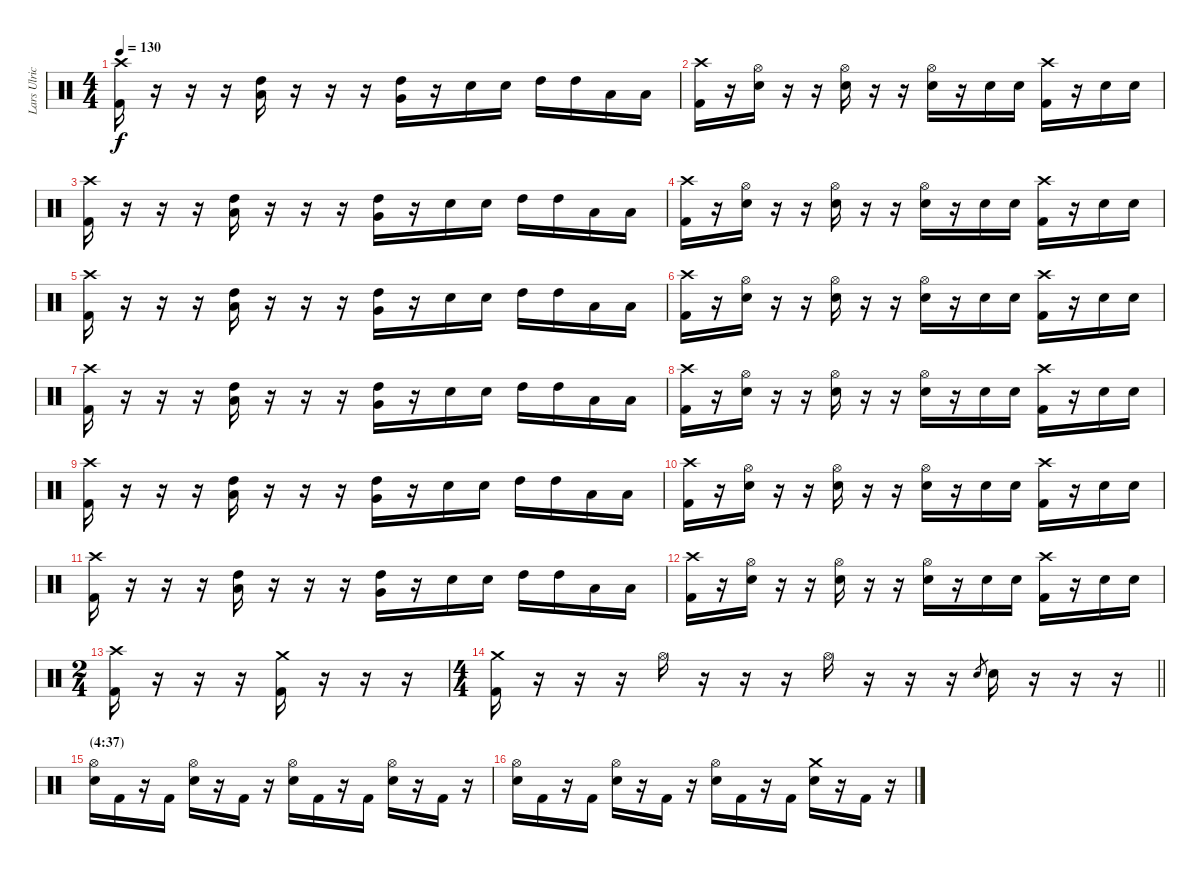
\track ("Lars Ulrich" "Lars Ulric") {instrument percussion}
\staff {score}
\articulation defaults
\ts (4 4)
\tempo 130
\clef neutral
\ks c
("Crash high (hit)" "Kick (hit) 2").16{dy f} r.16 r.16 r.16 ("Low Tom (hit)" "High Tom (hit)").16 r.16 r.16 r.16 ("Very Low Tom (hit)" "High Tom (hit)").16 r.16 "Electric Snare (hit)".16 "Electric Snare (hit)".16 "High Tom (hit)".16 "High Tom (hit)".16 "Low Tom (hit)".16 "Low Tom (hit)".16 |
("Crash high (hit)" "Kick (hit) 2").16 r.16 ("Electric Snare (hit)" "Hi-Hat (open)").16 r.16 r.16 ("Electric Snare (hit)" "Hi-Hat (open)").16 r.16 r.16 ("Electric Snare (hit)" "Hi-Hat (open)").16 r.16 "Electric Snare (hit)".16 "Electric Snare (hit)".16 ("Crash high (hit)" "Kick (hit) 2").16 r.16 "Electric Snare (hit)".16 "Electric Snare (hit)".16 |
("Crash high (hit)" "Kick (hit) 2").16 r.16 r.16 r.16 ("Low Tom (hit)" "High Tom (hit)").16 r.16 r.16 r.16 ("Very Low Tom (hit)" "High Tom (hit)").16 r.16 "Electric Snare (hit)".16 "Electric Snare (hit)".16 "High Tom (hit)".16 "High Tom (hit)".16 "Low Tom (hit)".16 "Low Tom (hit)".16 |
("Crash high (hit)" "Kick (hit) 2").16 r.16 ("Electric Snare (hit)" "Hi-Hat (open)").16 r.16 r.16 ("Electric Snare (hit)" "Hi-Hat (open)").16 r.16 r.16 ("Electric Snare (hit)" "Hi-Hat (open)").16 r.16 "Electric Snare (hit)".16 "Electric Snare (hit)".16 ("Crash high (hit)" "Kick (hit) 2").16 r.16 "Electric Snare (hit)".16 "Electric Snare (hit)".16 |
("Crash high (hit)" "Kick (hit) 2").16 r.16 r.16 r.16 ("Low Tom (hit)" "High Tom (hit)").16 r.16 r.16 r.16 ("Very Low Tom (hit)" "High Tom (hit)").16 r.16 "Electric Snare (hit)".16 "Electric Snare (hit)".16 "High Tom (hit)".16 "High Tom (hit)".16 "Low Tom (hit)".16 "Low Tom (hit)".16 |
("Crash high (hit)" "Kick (hit) 2").16 r.16 ("Electric Snare (hit)" "Hi-Hat (open)").16 r.16 r.16 ("Electric Snare (hit)" "Hi-Hat (open)").16 r.16 r.16 ("Electric Snare (hit)" "Hi-Hat (open)").16 r.16 "Electric Snare (hit)".16 "Electric Snare (hit)".16 ("Crash high (hit)" "Kick (hit) 2").16 r.16 "Electric Snare (hit)".16 "Electric Snare (hit)".16 |
("Crash high (hit)" "Kick (hit) 2").16 r.16 r.16 r.16 ("Low Tom (hit)" "High Tom (hit)").16 r.16 r.16 r.16 ("Very Low Tom (hit)" "High Tom (hit)").16 r.16 "Electric Snare (hit)".16 "Electric Snare (hit)".16 "High Tom (hit)".16 "High Tom (hit)".16 "Low Tom (hit)".16 "Low Tom (hit)".16 |
("Crash high (hit)" "Kick (hit) 2").16 r.16 ("Electric Snare (hit)" "Hi-Hat (open)").16 r.16 r.16 ("Electric Snare (hit)" "Hi-Hat (open)").16 r.16 r.16 ("Electric Snare (hit)" "Hi-Hat (open)").16 r.16 "Electric Snare (hit)".16 "Electric Snare (hit)".16 ("Crash high (hit)" "Kick (hit) 2").16 r.16 "Electric Snare (hit)".16 "Electric Snare (hit)".16 |
("Crash high (hit)" "Kick (hit) 2").16 r.16 r.16 r.16 ("Low Tom (hit)" "High Tom (hit)").16 r.16 r.16 r.16 ("Very Low Tom (hit)" "High Tom (hit)").16 r.16 "Electric Snare (hit)".16 "Electric Snare (hit)".16 "High Tom (hit)".16 "High Tom (hit)".16 "Low Tom (hit)".16 "Low Tom (hit)".16 |
("Crash high (hit)" "Kick (hit) 2").16 r.16 ("Electric Snare (hit)" "Hi-Hat (open)").16 r.16 r.16 ("Electric Snare (hit)" "Hi-Hat (open)").16 r.16 r.16 ("Electric Snare (hit)" "Hi-Hat (open)").16 r.16 "Electric Snare (hit)".16 "Electric Snare (hit)".16 ("Crash high (hit)" "Kick (hit) 2").16 r.16 "Electric Snare (hit)".16 "Electric Snare (hit)".16 |
("Crash high (hit)" "Kick (hit) 2").16 r.16 r.16 r.16 ("Low Tom (hit)" "High Tom (hit)").16 r.16 r.16 r.16 ("Very Low Tom (hit)" "High Tom (hit)").16 r.16 "Electric Snare (hit)".16 "Electric Snare (hit)".16 "High Tom (hit)".16 "High Tom (hit)".16 "Low Tom (hit)".16 "Low Tom (hit)".16 |
("Crash high (hit)" "Kick (hit) 2").16 r.16 ("Electric Snare (hit)" "Hi-Hat (open)").16 r.16 r.16 ("Electric Snare (hit)" "Hi-Hat (open)").16 r.16 r.16 ("Electric Snare (hit)" "Hi-Hat (open)").16 r.16 "Electric Snare (hit)".16 "Electric Snare (hit)".16 ("Crash high (hit)" "Kick (hit) 2").16 r.16 "Electric Snare (hit)".16 "Electric Snare (hit)".16 |
\ts (2 4)
("Crash high (hit)" "Kick (hit) 2").16 r.16 r.16 r.16 ("Crash medium (hit)" "Kick (hit) 2").16 r.16 r.16 r.16 |
\ts (4 4)
\barLineRight lightlight
("Crash medium (hit)" "Kick (hit) 2").16 r.16 r.16 r.16 "Hi-Hat (open)".16 r.16 r.16 r.16 "Hi-Hat (open)".16 r.16 r.16 r.16 "Electric Snare (hit)".8{gr} "Electric Snare (hit)".16 r.16 r.16 r.16 |
\section ("" "(4:37)")
("Electric Snare (hit)" "Hi-Hat (open)").16 "Kick (hit) 2".16 r.16 "Kick (hit) 2".16 ("Electric Snare (hit)" "Hi-Hat (open)").16 r.16 "Kick (hit) 2".16 r.16 ("Electric Snare (hit)" "Hi-Hat (open)").16 "Kick (hit) 2".16 r.16 "Kick (hit) 2".16 ("Electric Snare (hit)" "Hi-Hat (open)").16 r.16 "Kick (hit) 2".16 r.16 |
("Electric Snare (hit)" "Hi-Hat (open)").16 "Kick (hit) 2".16 r.16 "Kick (hit) 2".16 ("Electric Snare (hit)" "Hi-Hat (open)").16 r.16 "Kick (hit) 2".16 r.16 ("Electric Snare (hit)" "Hi-Hat (open)").16 "Kick (hit) 2".16 r.16 "Kick (hit) 2".16 ("Electric Snare (hit)" "Crash medium (hit)").16 r.16 "Kick (hit) 2".16 r.16
